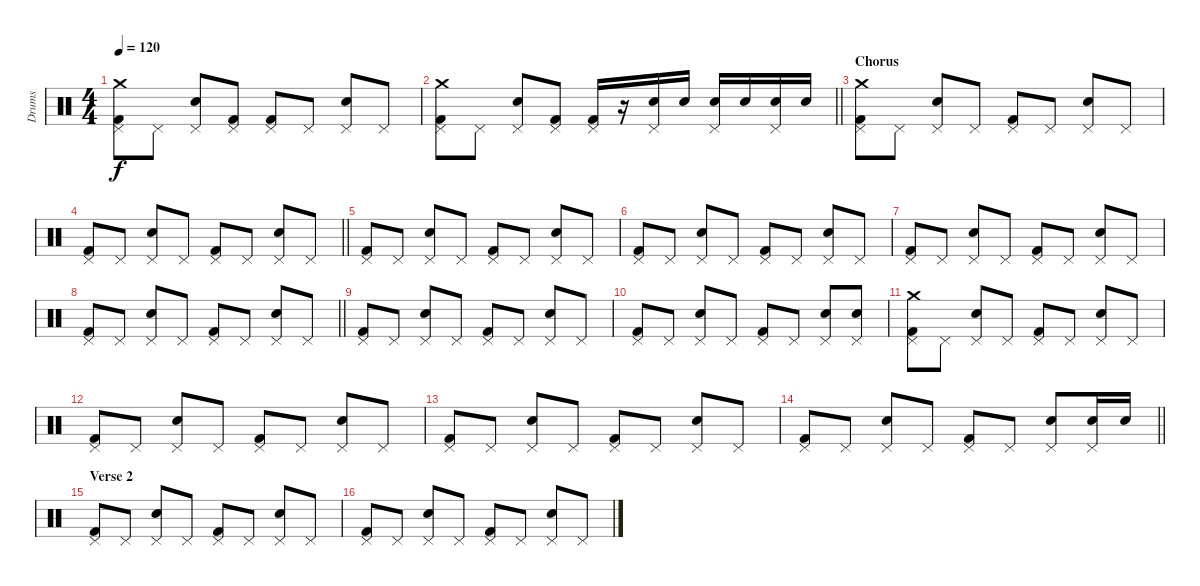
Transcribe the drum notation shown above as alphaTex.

\track ("Drums" "Drums") {instrument percussion}
\staff {score}
\articulation defaults
\ts (4 4)
\tempo 120
\clef neutral
\ks c
("Kick (hit) 2" "Pedal Hi-Hat (hit)" "Crash medium (hit)").8{dy f} "Pedal Hi-Hat (hit)".8 ("Snare (hit) 2" "Pedal Hi-Hat (hit)").8 ("Kick (hit) 2" "Pedal Hi-Hat (hit)").8 ("Kick (hit) 2" "Pedal Hi-Hat (hit)").8 "Pedal Hi-Hat (hit)".8 ("Snare (hit) 2" "Pedal Hi-Hat (hit)").8 "Pedal Hi-Hat (hit)".8 |
\barLineRight lightlight
("Kick (hit) 2" "Pedal Hi-Hat (hit)" "Crash medium (hit)").8 "Pedal Hi-Hat (hit)".8 ("Snare (hit) 2" "Pedal Hi-Hat (hit)").8 ("Kick (hit) 2" "Pedal Hi-Hat (hit)").8 ("Kick (hit) 2" "Pedal Hi-Hat (hit)").16 r.16 ("Snare (hit) 2" "Pedal Hi-Hat (hit)").16 "Snare (hit) 2".16 ("Snare (hit) 2" "Pedal Hi-Hat (hit)").16 "Snare (hit) 2".16 ("Snare (hit) 2" "Pedal Hi-Hat (hit)").16 "Snare (hit) 2".16 |
\section ("" "Chorus")
("Kick (hit) 2" "Pedal Hi-Hat (hit)" "Crash medium (hit)").8 "Pedal Hi-Hat (hit)".8 ("Snare (hit) 2" "Pedal Hi-Hat (hit)").8 "Pedal Hi-Hat (hit)".8 ("Kick (hit) 2" "Pedal Hi-Hat (hit)").8 "Pedal Hi-Hat (hit)".8 ("Snare (hit) 2" "Pedal Hi-Hat (hit)").8 "Pedal Hi-Hat (hit)".8 |
\barLineRight lightlight
("Kick (hit) 2" "Pedal Hi-Hat (hit)").8 "Pedal Hi-Hat (hit)".8 ("Snare (hit) 2" "Pedal Hi-Hat (hit)").8 "Pedal Hi-Hat (hit)".8 ("Kick (hit) 2" "Pedal Hi-Hat (hit)").8 "Pedal Hi-Hat (hit)".8 ("Snare (hit) 2" "Pedal Hi-Hat (hit)").8 "Pedal Hi-Hat (hit)".8 |
("Kick (hit) 2" "Pedal Hi-Hat (hit)").8 "Pedal Hi-Hat (hit)".8 ("Snare (hit) 2" "Pedal Hi-Hat (hit)").8 "Pedal Hi-Hat (hit)".8 ("Kick (hit) 2" "Pedal Hi-Hat (hit)").8 "Pedal Hi-Hat (hit)".8 ("Snare (hit) 2" "Pedal Hi-Hat (hit)").8 "Pedal Hi-Hat (hit)".8 |
("Kick (hit) 2" "Pedal Hi-Hat (hit)").8 "Pedal Hi-Hat (hit)".8 ("Snare (hit) 2" "Pedal Hi-Hat (hit)").8 "Pedal Hi-Hat (hit)".8 ("Kick (hit) 2" "Pedal Hi-Hat (hit)").8 "Pedal Hi-Hat (hit)".8 ("Snare (hit) 2" "Pedal Hi-Hat (hit)").8 "Pedal Hi-Hat (hit)".8 |
("Kick (hit) 2" "Pedal Hi-Hat (hit)").8 "Pedal Hi-Hat (hit)".8 ("Snare (hit) 2" "Pedal Hi-Hat (hit)").8 "Pedal Hi-Hat (hit)".8 ("Kick (hit) 2" "Pedal Hi-Hat (hit)").8 "Pedal Hi-Hat (hit)".8 ("Snare (hit) 2" "Pedal Hi-Hat (hit)").8 "Pedal Hi-Hat (hit)".8 |
\barLineRight lightlight
("Kick (hit) 2" "Pedal Hi-Hat (hit)").8 "Pedal Hi-Hat (hit)".8 ("Snare (hit) 2" "Pedal Hi-Hat (hit)").8 "Pedal Hi-Hat (hit)".8 ("Kick (hit) 2" "Pedal Hi-Hat (hit)").8 "Pedal Hi-Hat (hit)".8 ("Snare (hit) 2" "Pedal Hi-Hat (hit)").8 "Pedal Hi-Hat (hit)".8 |
("Kick (hit) 2" "Pedal Hi-Hat (hit)").8 "Pedal Hi-Hat (hit)".8 ("Snare (hit) 2" "Pedal Hi-Hat (hit)").8 "Pedal Hi-Hat (hit)".8 ("Kick (hit) 2" "Pedal Hi-Hat (hit)").8 "Pedal Hi-Hat (hit)".8 ("Snare (hit) 2" "Pedal Hi-Hat (hit)").8 "Pedal Hi-Hat (hit)".8 |
("Kick (hit) 2" "Pedal Hi-Hat (hit)").8 "Pedal Hi-Hat (hit)".8 ("Snare (hit) 2" "Pedal Hi-Hat (hit)").8 "Pedal Hi-Hat (hit)".8 ("Kick (hit) 2" "Pedal Hi-Hat (hit)").8 "Pedal Hi-Hat (hit)".8 ("Snare (hit) 2" "Pedal Hi-Hat (hit)").8 ("Snare (hit) 2" "Pedal Hi-Hat (hit)").8 |
("Kick (hit) 2" "Pedal Hi-Hat (hit)" "Crash medium (hit)").8 "Pedal Hi-Hat (hit)".8 ("Snare (hit) 2" "Pedal Hi-Hat (hit)").8 "Pedal Hi-Hat (hit)".8 ("Kick (hit) 2" "Pedal Hi-Hat (hit)").8 "Pedal Hi-Hat (hit)".8 ("Snare (hit) 2" "Pedal Hi-Hat (hit)").8 "Pedal Hi-Hat (hit)".8 |
("Kick (hit) 2" "Pedal Hi-Hat (hit)").8 "Pedal Hi-Hat (hit)".8 ("Snare (hit) 2" "Pedal Hi-Hat (hit)").8 "Pedal Hi-Hat (hit)".8 ("Kick (hit) 2" "Pedal Hi-Hat (hit)").8 "Pedal Hi-Hat (hit)".8 ("Snare (hit) 2" "Pedal Hi-Hat (hit)").8 "Pedal Hi-Hat (hit)".8 |
("Kick (hit) 2" "Pedal Hi-Hat (hit)").8 "Pedal Hi-Hat (hit)".8 ("Snare (hit) 2" "Pedal Hi-Hat (hit)").8 "Pedal Hi-Hat (hit)".8 ("Kick (hit) 2" "Pedal Hi-Hat (hit)").8 "Pedal Hi-Hat (hit)".8 ("Snare (hit) 2" "Pedal Hi-Hat (hit)").8 "Pedal Hi-Hat (hit)".8 |
\barLineRight lightlight
("Kick (hit) 2" "Pedal Hi-Hat (hit)").8 "Pedal Hi-Hat (hit)".8 ("Snare (hit) 2" "Pedal Hi-Hat (hit)").8 "Pedal Hi-Hat (hit)".8 ("Kick (hit) 2" "Pedal Hi-Hat (hit)").8 "Pedal Hi-Hat (hit)".8 ("Snare (hit) 2" "Pedal Hi-Hat (hit)").8 ("Snare (hit) 2" "Pedal Hi-Hat (hit)").16 "Snare (hit) 2".16 |
\section ("" "Verse 2")
("Kick (hit) 2" "Pedal Hi-Hat (hit)").8 "Pedal Hi-Hat (hit)".8 ("Snare (hit) 2" "Pedal Hi-Hat (hit)").8 "Pedal Hi-Hat (hit)".8 ("Kick (hit) 2" "Pedal Hi-Hat (hit)").8 "Pedal Hi-Hat (hit)".8 ("Snare (hit) 2" "Pedal Hi-Hat (hit)").8 "Pedal Hi-Hat (hit)".8 |
("Kick (hit) 2" "Pedal Hi-Hat (hit)").8 "Pedal Hi-Hat (hit)".8 ("Snare (hit) 2" "Pedal Hi-Hat (hit)").8 "Pedal Hi-Hat (hit)".8 ("Kick (hit) 2" "Pedal Hi-Hat (hit)").8 "Pedal Hi-Hat (hit)".8 ("Snare (hit) 2" "Pedal Hi-Hat (hit)").8 "Pedal Hi-Hat (hit)".8
